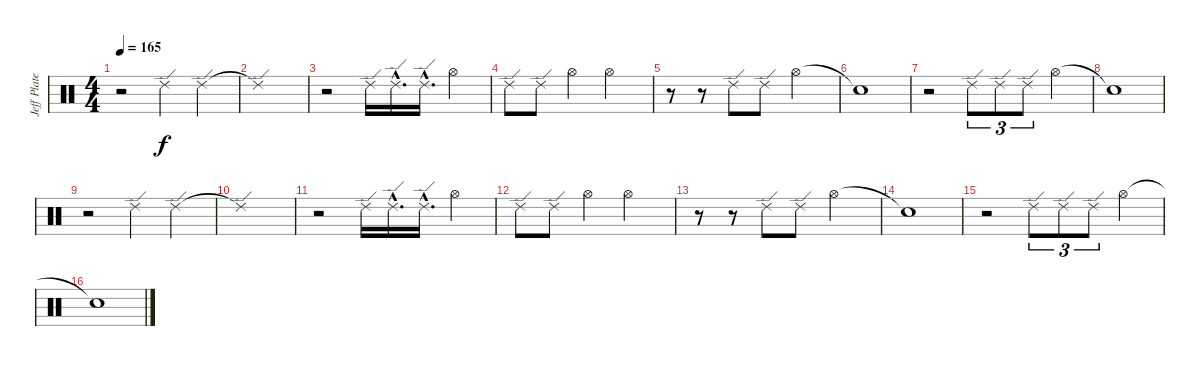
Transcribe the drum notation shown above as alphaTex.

\track ("Jeff Plate" "Jeff Plate") {instrument percussion}
\staff {score}
\articulation defaults
\ts (4 4)
\tempo 165
\clef neutral
\ks c
r.2{dy f} "Ride (edge) 2".4 "Ride (edge) 2".4 |
"Ride (edge) 2"{t}.1 |
r.2 "Ride (edge) 2".16 "Ride (edge) 2"{hac}.16{d} "Ride (edge) 2"{hac}.16{d} "Hi-Hat (open)".4 |
"Ride (edge) 2".8 "Ride (edge) 2".8 "Hi-Hat (open)".4 "Hi-Hat (open)".2 |
r.8 r.8 "Ride (edge) 2".8 "Ride (edge) 2".8 "Hi-Hat (open)".2 |
"Snare (hit)"{t}.1 |
r.2 "Ride (edge) 2".8{tu (3 2)} "Ride (edge) 2".8{tu (3 2)} "Ride (edge) 2".8{tu (3 2)} "Hi-Hat (open)".4 |
"Snare (hit)"{t}.1 |
r.2 "Ride (edge) 2".4 "Ride (edge) 2".4 |
"Ride (edge) 2"{t}.1 |
r.2 "Ride (edge) 2".16 "Ride (edge) 2"{hac}.16{d} "Ride (edge) 2"{hac}.16{d} "Hi-Hat (open)".4 |
"Ride (edge) 2".8 "Ride (edge) 2".8 "Hi-Hat (open)".4 "Hi-Hat (open)".2 |
r.8 r.8 "Ride (edge) 2".8 "Ride (edge) 2".8 "Hi-Hat (open)".2 |
"Snare (hit)"{t}.1 |
r.2 "Ride (edge) 2".8{tu (3 2)} "Ride (edge) 2".8{tu (3 2)} "Ride (edge) 2".8{tu (3 2)} "Hi-Hat (open)".4 |
"Snare (hit)"{t}.1
